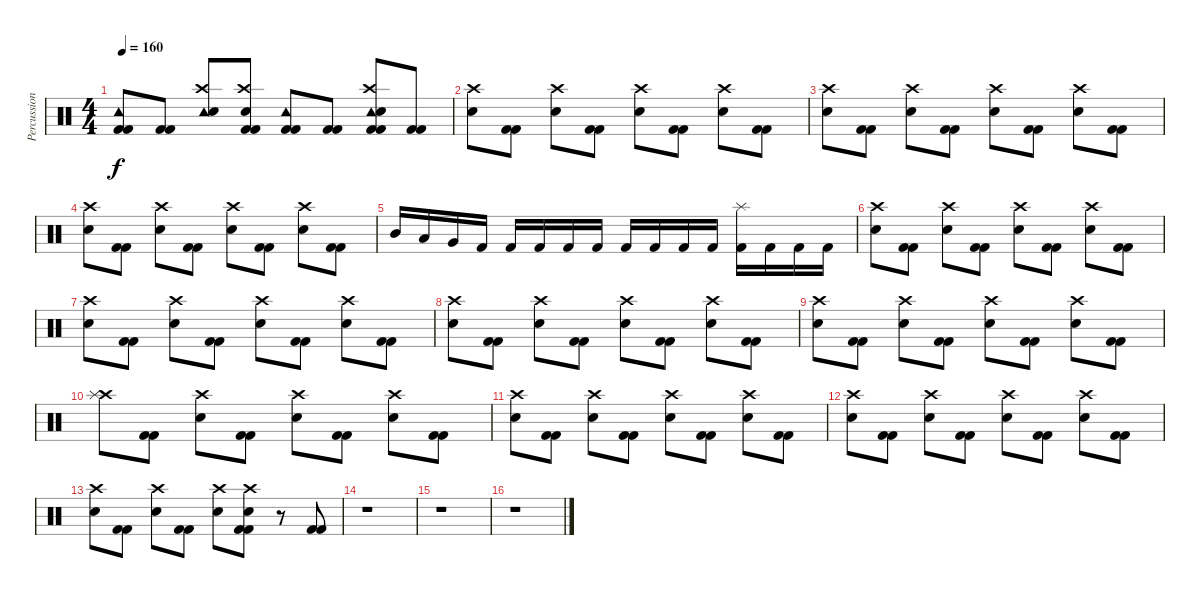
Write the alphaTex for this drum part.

\track ("Percussion" "Percussion") {instrument percussion}
\staff {score}
\articulation defaults
\ts (4 4)
\tempo 160
\clef neutral
\ks c
("Tambourine (hit)" "Kick (hit) 2" "Kick (hit) 2").8{dy f} ("Kick (hit) 2" "Kick (hit) 2").8 ("Tambourine (hit)" "Crash high (hit)" "Electric Snare (hit)").8 ("Crash high (hit)" "Electric Snare (hit)" "Kick (hit) 2" "Kick (hit) 2").8 ("Tambourine (hit)" "Kick (hit) 2" "Kick (hit) 2").8 ("Kick (hit) 2" "Kick (hit) 2").8 ("Tambourine (hit)" "Crash high (hit)" "Electric Snare (hit)" "Kick (hit) 2" "Kick (hit) 2").8 ("Kick (hit) 2" "Kick (hit) 2").8 |
("Crash high (hit)" "Electric Snare (hit)").8 ("Kick (hit) 2" "Kick (hit) 2").8 ("Crash high (hit)" "Electric Snare (hit)").8 ("Kick (hit) 2" "Kick (hit) 2").8 ("Crash high (hit)" "Electric Snare (hit)").8 ("Kick (hit) 2" "Kick (hit) 2").8 ("Crash high (hit)" "Electric Snare (hit)").8 ("Kick (hit) 2" "Kick (hit) 2").8 |
("Crash high (hit)" "Electric Snare (hit)").8 ("Kick (hit) 2" "Kick (hit) 2").8 ("Crash high (hit)" "Electric Snare (hit)").8 ("Kick (hit) 2" "Kick (hit) 2").8 ("Crash high (hit)" "Electric Snare (hit)").8 ("Kick (hit) 2" "Kick (hit) 2").8 ("Crash high (hit)" "Electric Snare (hit)").8 ("Kick (hit) 2" "Kick (hit) 2").8 |
("Crash high (hit)" "Electric Snare (hit)").8 ("Kick (hit) 2" "Kick (hit) 2").8 ("Crash high (hit)" "Electric Snare (hit)").8 ("Kick (hit) 2" "Kick (hit) 2").8 ("Crash high (hit)" "Electric Snare (hit)").8 ("Kick (hit) 2" "Kick (hit) 2").8 ("Crash high (hit)" "Electric Snare (hit)").8 ("Kick (hit) 2" "Kick (hit) 2").8 |
"Mid Tom (hit)".16 "Low Tom (hit)".16 "Very Low Tom (hit)".16 "Kick (hit) 2".16 "Kick (hit) 2".16 "Kick (hit) 2".16 "Kick (hit) 2".16 "Kick (hit) 2".16 "Kick (hit) 2".16 "Kick (hit) 2".16 "Kick (hit) 2".16 "Kick (hit) 2".16 ("Splash (hit)" "Kick (hit) 2").16 "Kick (hit) 2".16 "Kick (hit) 2".16 "Kick (hit) 2".16 |
("Crash high (hit)" "Electric Snare (hit)").8 ("Kick (hit) 2" "Kick (hit) 2").8 ("Crash high (hit)" "Electric Snare (hit)").8 ("Kick (hit) 2" "Kick (hit) 2").8 ("Crash high (hit)" "Electric Snare (hit)").8 ("Kick (hit) 2" "Kick (hit) 2").8 ("Crash high (hit)" "Electric Snare (hit)").8 ("Kick (hit) 2" "Kick (hit) 2").8 |
("Crash high (hit)" "Electric Snare (hit)").8 ("Kick (hit) 2" "Kick (hit) 2").8 ("Crash high (hit)" "Electric Snare (hit)").8 ("Kick (hit) 2" "Kick (hit) 2").8 ("Crash high (hit)" "Electric Snare (hit)").8 ("Kick (hit) 2" "Kick (hit) 2").8 ("Crash high (hit)" "Electric Snare (hit)").8 ("Kick (hit) 2" "Kick (hit) 2").8 |
("Crash high (hit)" "Electric Snare (hit)").8 ("Kick (hit) 2" "Kick (hit) 2").8 ("Crash high (hit)" "Electric Snare (hit)").8 ("Kick (hit) 2" "Kick (hit) 2").8 ("Crash high (hit)" "Electric Snare (hit)").8 ("Kick (hit) 2" "Kick (hit) 2").8 ("Crash high (hit)" "Electric Snare (hit)").8 ("Kick (hit) 2" "Kick (hit) 2").8 |
("Crash high (hit)" "Electric Snare (hit)").8 ("Kick (hit) 2" "Kick (hit) 2").8 ("Crash high (hit)" "Electric Snare (hit)").8 ("Kick (hit) 2" "Kick (hit) 2").8 ("Crash high (hit)" "Electric Snare (hit)").8 ("Kick (hit) 2" "Kick (hit) 2").8 ("Crash high (hit)" "Electric Snare (hit)").8 ("Kick (hit) 2" "Kick (hit) 2").8 |
("Crash high (hit)" "Splash (hit)").8 ("Kick (hit) 2" "Kick (hit) 2").8 ("Crash high (hit)" "Electric Snare (hit)").8 ("Kick (hit) 2" "Kick (hit) 2").8 ("Crash high (hit)" "Electric Snare (hit)").8 ("Kick (hit) 2" "Kick (hit) 2").8 ("Crash high (hit)" "Electric Snare (hit)").8 ("Kick (hit) 2" "Kick (hit) 2").8 |
("Crash high (hit)" "Electric Snare (hit)").8 ("Kick (hit) 2" "Kick (hit) 2").8 ("Crash high (hit)" "Electric Snare (hit)").8 ("Kick (hit) 2" "Kick (hit) 2").8 ("Crash high (hit)" "Electric Snare (hit)").8 ("Kick (hit) 2" "Kick (hit) 2").8 ("Crash high (hit)" "Electric Snare (hit)").8 ("Kick (hit) 2" "Kick (hit) 2").8 |
("Crash high (hit)" "Electric Snare (hit)").8 ("Kick (hit) 2" "Kick (hit) 2").8 ("Crash high (hit)" "Electric Snare (hit)").8 ("Kick (hit) 2" "Kick (hit) 2").8 ("Crash high (hit)" "Electric Snare (hit)").8 ("Kick (hit) 2" "Kick (hit) 2").8 ("Crash high (hit)" "Electric Snare (hit)").8 ("Kick (hit) 2" "Kick (hit) 2").8 |
("Crash high (hit)" "Electric Snare (hit)").8 ("Kick (hit) 2" "Kick (hit) 2").8 ("Crash high (hit)" "Electric Snare (hit)").8 ("Kick (hit) 2" "Kick (hit) 2").8 ("Crash high (hit)" "Electric Snare (hit)").8 ("Crash high (hit)" "Electric Snare (hit)" "Kick (hit) 2" "Kick (hit) 2").8 r.8 ("Kick (hit) 2" "Kick (hit) 2").8 |
r.1 |
r.1 |
r.1
